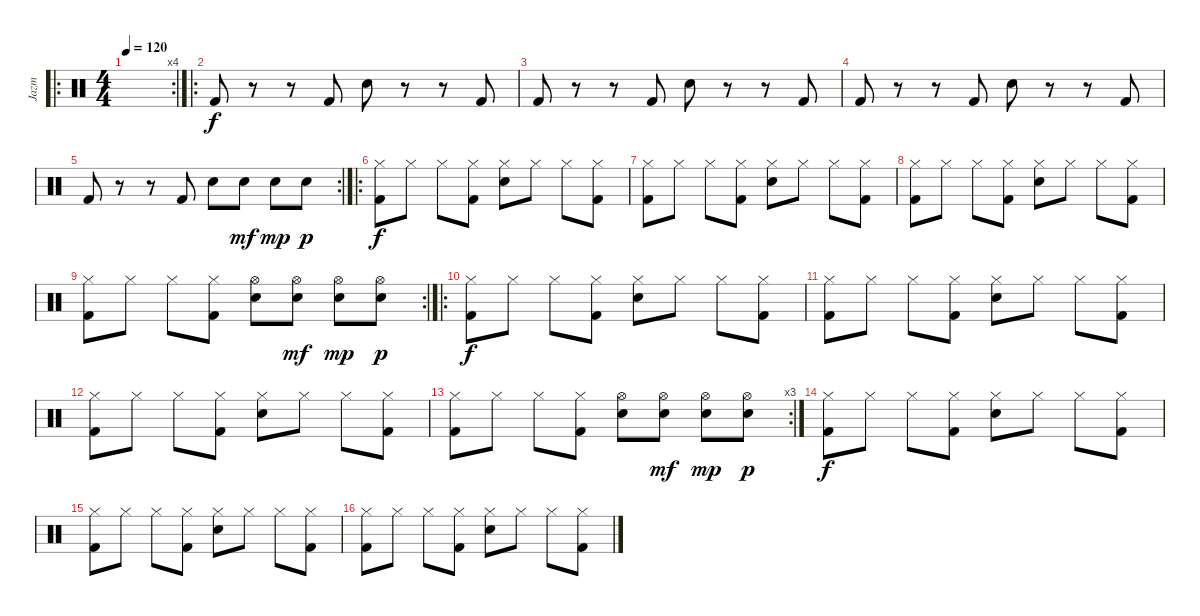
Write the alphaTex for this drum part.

\track ("Jazm" "Jazm") {instrument percussion}
\staff {score}
\articulation defaults
\ro
\rc 4
\ts (4 4)
\tempo 120
\clef neutral
\ks c
|
\ro "Kick (hit) 2".8
r.8 r.8 "Kick (hit) 2".8 "Electric Snare (hit)".8 r.8 r.8 "Kick (hit) 2".8 |
"Kick (hit) 2".8 r.8 r.8 "Kick (hit) 2".8 "Electric Snare (hit)".8 r.8 r.8 "Kick (hit) 2".8 |
"Kick (hit) 2".8 r.8 r.8 "Kick (hit) 2".8 "Electric Snare (hit)".8 r.8 r.8 "Kick (hit) 2".8 |
\rc 2 "Kick (hit) 2".8
r.8 r.8 "Kick (hit) 2".8 "Electric Snare (hit)".8 "Electric Snare (hit)".8{dy mf} "Electric Snare (hit)".8{dy mp} "Electric Snare (hit)".8{dy p} |
\ro
("Hi-Hat (closed)" "Kick (hit) 2").8{dy f} "Hi-Hat (closed)".8 "Hi-Hat (closed)".8 ("Hi-Hat (closed)" "Kick (hit) 2").8 ("Hi-Hat (closed)" "Electric Snare (hit)").8 "Hi-Hat (closed)".8 "Hi-Hat (closed)".8 ("Hi-Hat (closed)" "Kick (hit) 2").8 |
("Hi-Hat (closed)" "Kick (hit) 2").8 "Hi-Hat (closed)".8 "Hi-Hat (closed)".8 ("Hi-Hat (closed)" "Kick (hit) 2").8 ("Hi-Hat (closed)" "Electric Snare (hit)").8 "Hi-Hat (closed)".8 "Hi-Hat (closed)".8 ("Hi-Hat (closed)" "Kick (hit) 2").8 |
("Hi-Hat (closed)" "Kick (hit) 2").8 "Hi-Hat (closed)".8 "Hi-Hat (closed)".8 ("Hi-Hat (closed)" "Kick (hit) 2").8 ("Hi-Hat (closed)" "Electric Snare (hit)").8 "Hi-Hat (closed)".8 "Hi-Hat (closed)".8 ("Hi-Hat (closed)" "Kick (hit) 2").8 |
\rc 2
("Hi-Hat (closed)" "Kick (hit) 2").8 "Hi-Hat (closed)".8 "Hi-Hat (closed)".8 ("Hi-Hat (closed)" "Kick (hit) 2").8 ("Hi-Hat (open)" "Electric Snare (hit)").8 ("Hi-Hat (open)" "Electric Snare (hit)").8{dy mf} ("Hi-Hat (open)" "Electric Snare (hit)").8{dy mp} ("Hi-Hat (open)" "Electric Snare (hit)").8{dy p} |
\ro
("Hi-Hat (closed)" "Kick (hit) 2").8{dy f} "Hi-Hat (closed)".8 "Hi-Hat (closed)".8 ("Hi-Hat (closed)" "Kick (hit) 2").8 ("Hi-Hat (closed)" "Electric Snare (hit)").8 "Hi-Hat (closed)".8 "Hi-Hat (closed)".8 ("Hi-Hat (closed)" "Kick (hit) 2").8 |
("Hi-Hat (closed)" "Kick (hit) 2").8 "Hi-Hat (closed)".8 "Hi-Hat (closed)".8 ("Hi-Hat (closed)" "Kick (hit) 2").8 ("Hi-Hat (closed)" "Electric Snare (hit)").8 "Hi-Hat (closed)".8 "Hi-Hat (closed)".8 ("Hi-Hat (closed)" "Kick (hit) 2").8 |
("Hi-Hat (closed)" "Kick (hit) 2").8 "Hi-Hat (closed)".8 "Hi-Hat (closed)".8 ("Hi-Hat (closed)" "Kick (hit) 2").8 ("Hi-Hat (closed)" "Electric Snare (hit)").8 "Hi-Hat (closed)".8 "Hi-Hat (closed)".8 ("Hi-Hat (closed)" "Kick (hit) 2").8 |
\rc 3
("Hi-Hat (closed)" "Kick (hit) 2").8 "Hi-Hat (closed)".8 "Hi-Hat (closed)".8 ("Hi-Hat (closed)" "Kick (hit) 2").8 ("Hi-Hat (open)" "Electric Snare (hit)").8 ("Hi-Hat (open)" "Electric Snare (hit)").8{dy mf} ("Hi-Hat (open)" "Electric Snare (hit)").8{dy mp} ("Hi-Hat (open)" "Electric Snare (hit)").8{dy p} |
("Hi-Hat (closed)" "Kick (hit) 2").8{dy f} "Hi-Hat (closed)".8 "Hi-Hat (closed)".8 ("Hi-Hat (closed)" "Kick (hit) 2").8 ("Hi-Hat (closed)" "Electric Snare (hit)").8 "Hi-Hat (closed)".8 "Hi-Hat (closed)".8 ("Hi-Hat (closed)" "Kick (hit) 2").8 |
("Hi-Hat (closed)" "Kick (hit) 2").8 "Hi-Hat (closed)".8 "Hi-Hat (closed)".8 ("Hi-Hat (closed)" "Kick (hit) 2").8 ("Hi-Hat (closed)" "Electric Snare (hit)").8 "Hi-Hat (closed)".8 "Hi-Hat (closed)".8 ("Hi-Hat (closed)" "Kick (hit) 2").8 |
("Hi-Hat (closed)" "Kick (hit) 2").8 "Hi-Hat (closed)".8 "Hi-Hat (closed)".8 ("Hi-Hat (closed)" "Kick (hit) 2").8 ("Hi-Hat (closed)" "Electric Snare (hit)").8 "Hi-Hat (closed)".8 "Hi-Hat (closed)".8 ("Hi-Hat (closed)" "Kick (hit) 2").8
